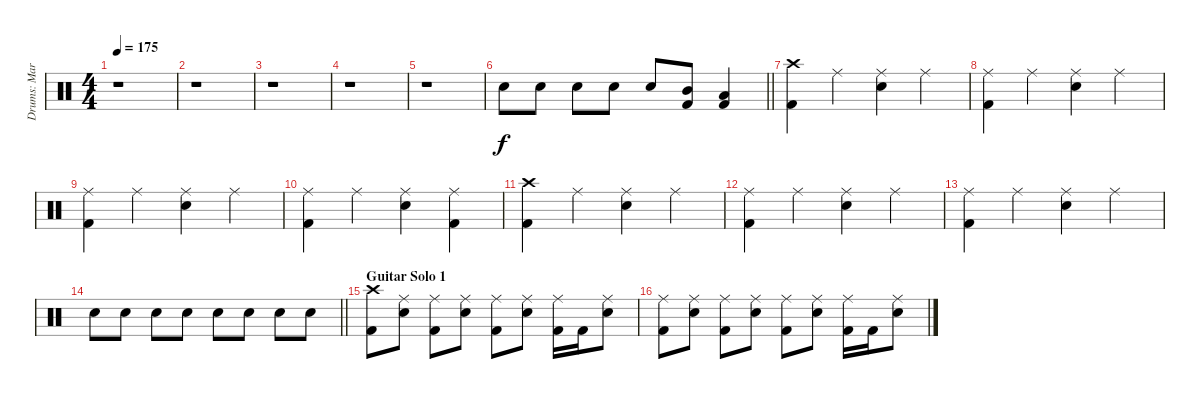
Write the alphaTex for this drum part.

\track ("Drums: Martin Herzinger" "Drums: Mar") {instrument percussion}
\staff {score}
\articulation defaults
\ts (4 4)
\tempo 175
\clef neutral
\ks aminor
r.1{dy f} |
r.1 |
r.1 |
r.1 |
r.1 |
\barLineRight lightlight "Snare (hit) 2".8 "Snare (hit) 2".8 "Snare (hit) 2".8 "Snare (hit) 2".8 "Snare (hit) 2".8
("Mid Tom (hit)" "Kick (hit) 2").8 ("Low Tom (hit)" "Kick (hit) 2").4 |
("Crash high (hit)" "Kick (hit) 2").4 "Ride (middle)".4 ("Ride (middle)" "Snare (hit) 2").4 "Ride (middle)".4 |
("Ride (middle)" "Kick (hit) 2").4 "Ride (middle)".4 ("Ride (middle)" "Snare (hit) 2").4 "Ride (middle)".4 |
("Ride (middle)" "Kick (hit) 2").4 "Ride (middle)".4 ("Ride (middle)" "Snare (hit) 2").4 "Ride (middle)".4 |
("Ride (middle)" "Kick (hit) 2").4 "Ride (middle)".4 ("Ride (middle)" "Snare (hit) 2").4 ("Ride (middle)" "Kick (hit) 2").4 |
("Crash high (hit)" "Kick (hit) 2").4 "Ride (middle)".4 ("Ride (middle)" "Snare (hit) 2").4 "Ride (middle)".4 |
("Ride (middle)" "Kick (hit) 2").4 "Ride (middle)".4 ("Ride (middle)" "Snare (hit) 2").4 "Ride (middle)".4 |
("Ride (middle)" "Kick (hit) 2").4 "Ride (middle)".4 ("Ride (middle)" "Snare (hit) 2").4 "Ride (middle)".4 |
\barLineRight lightlight "Snare (hit) 2".8 "Snare (hit) 2".8 "Snare (hit) 2".8 "Snare (hit) 2".8 "Snare (hit) 2".8 "Snare (hit) 2".8 "Snare (hit) 2".8 "Snare (hit) 2".8
|
\section ("" "Guitar Solo 1")
("Crash high (hit)" "Kick (hit) 2").8 ("Ride (middle)" "Snare (hit) 2").8 ("Ride (middle)" "Kick (hit) 2").8 ("Ride (middle)" "Snare (hit) 2").8 ("Ride (middle)" "Kick (hit) 2").8 ("Ride (middle)" "Snare (hit) 2").8 ("Ride (middle)" "Kick (hit) 2").16 "Kick (hit) 2".16 ("Ride (middle)" "Snare (hit) 2").8 |
("Ride (middle)" "Kick (hit) 2").8 ("Ride (middle)" "Snare (hit) 2").8 ("Ride (middle)" "Kick (hit) 2").8 ("Ride (middle)" "Snare (hit) 2").8 ("Ride (middle)" "Kick (hit) 2").8 ("Ride (middle)" "Snare (hit) 2").8 ("Ride (middle)" "Kick (hit) 2").16 "Kick (hit) 2".16 ("Ride (middle)" "Snare (hit) 2").8
